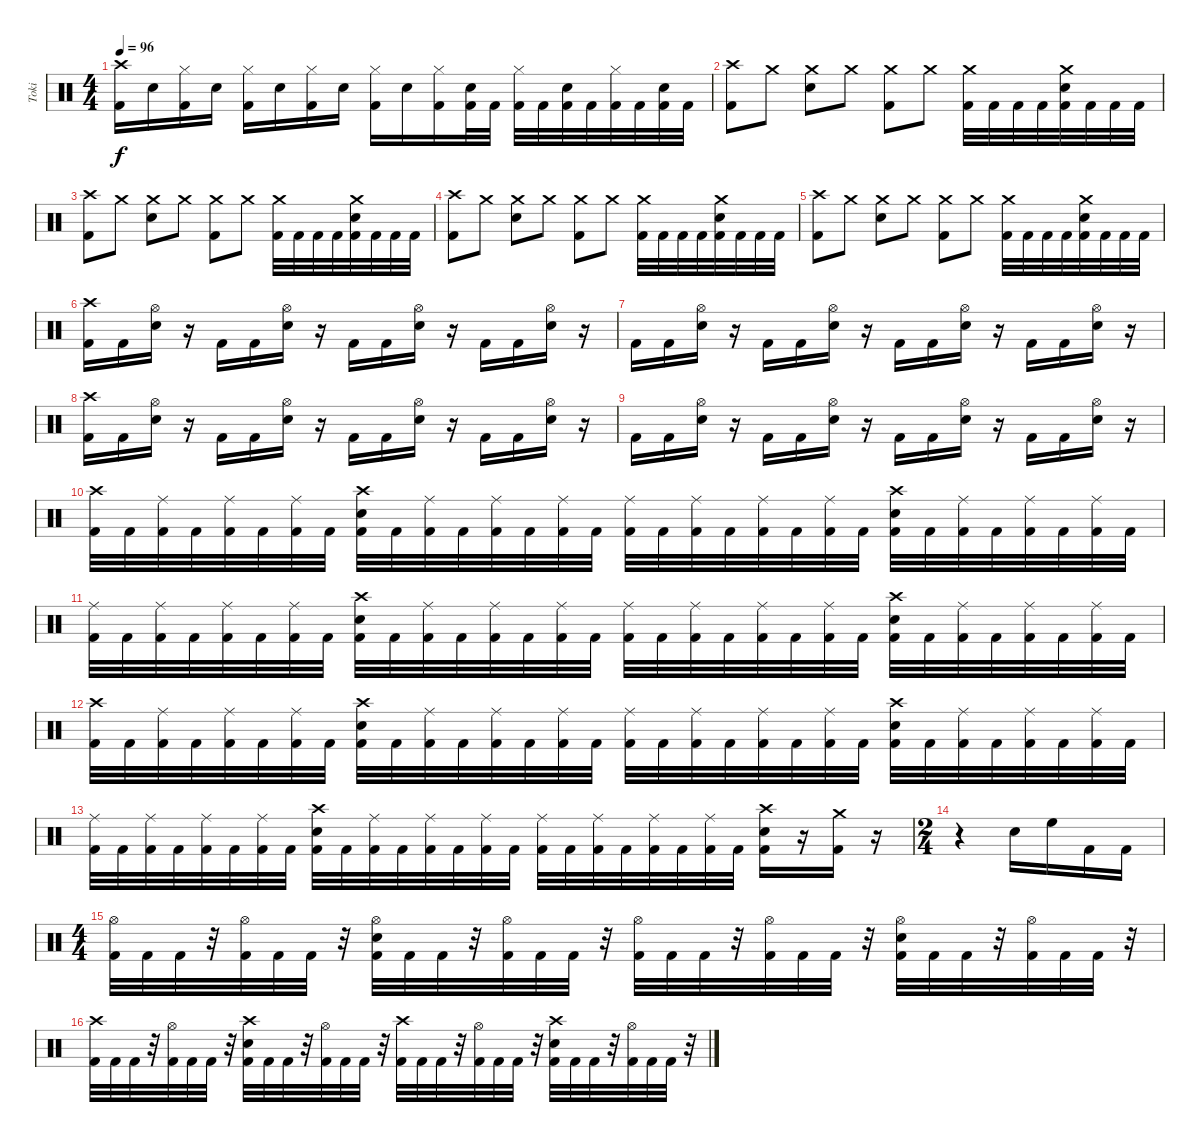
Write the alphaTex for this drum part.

\track ("Toki" "Toki") {instrument percussion}
\staff {score}
\articulation defaults
\ts (4 4)
\tempo 96
\clef neutral
\ks c
("Crash high (hit)" "Kick (hit) 2").16{dy f} "Electric Snare (hit)".16 ("Hi-Hat (closed)" "Kick (hit) 2").16 "Electric Snare (hit)".16 ("Hi-Hat (closed)" "Kick (hit) 2").16 "Electric Snare (hit)".16 ("Hi-Hat (closed)" "Kick (hit) 2").16 "Electric Snare (hit)".16 ("Hi-Hat (closed)" "Kick (hit) 2").16 "Electric Snare (hit)".16 ("Hi-Hat (closed)" "Kick (hit) 2").16 ("Electric Snare (hit)" "Kick (hit) 2").32 "Kick (hit) 2".32 ("Hi-Hat (closed)" "Kick (hit) 2").32 "Kick (hit) 2".32 ("Electric Snare (hit)" "Kick (hit) 2").32 "Kick (hit) 2".32 ("Hi-Hat (closed)" "Kick (hit) 2").32 "Kick (hit) 2".32 ("Electric Snare (hit)" "Kick (hit) 2").32 "Kick (hit) 2".32 |
\section ("" "")
("Crash high (hit)" "Kick (hit) 2").8 "Crash medium (hit)".8 ("Crash medium (hit)" "Electric Snare (hit)").8 "Crash medium (hit)".8 ("Crash medium (hit)" "Kick (hit) 2").8 "Crash medium (hit)".8 ("Crash medium (hit)" "Kick (hit) 2").32 "Kick (hit) 2".32 "Kick (hit) 2".32 "Kick (hit) 2".32 ("Crash medium (hit)" "Electric Snare (hit)" "Kick (hit) 2").32 "Kick (hit) 2".32 "Kick (hit) 2".32 "Kick (hit) 2".32 |
("Crash high (hit)" "Kick (hit) 2").8 "Crash medium (hit)".8 ("Crash medium (hit)" "Electric Snare (hit)").8 "Crash medium (hit)".8 ("Crash medium (hit)" "Kick (hit) 2").8 "Crash medium (hit)".8 ("Crash medium (hit)" "Kick (hit) 2").32 "Kick (hit) 2".32 "Kick (hit) 2".32 "Kick (hit) 2".32 ("Crash medium (hit)" "Electric Snare (hit)" "Kick (hit) 2").32 "Kick (hit) 2".32 "Kick (hit) 2".32 "Kick (hit) 2".32 |
("Crash high (hit)" "Kick (hit) 2").8 "Crash medium (hit)".8 ("Crash medium (hit)" "Electric Snare (hit)").8 "Crash medium (hit)".8 ("Crash medium (hit)" "Kick (hit) 2").8 "Crash medium (hit)".8 ("Crash medium (hit)" "Kick (hit) 2").32 "Kick (hit) 2".32 "Kick (hit) 2".32 "Kick (hit) 2".32 ("Crash medium (hit)" "Electric Snare (hit)" "Kick (hit) 2").32 "Kick (hit) 2".32 "Kick (hit) 2".32 "Kick (hit) 2".32 |
("Crash high (hit)" "Kick (hit) 2").8 "Crash medium (hit)".8 ("Crash medium (hit)" "Electric Snare (hit)").8 "Crash medium (hit)".8 ("Crash medium (hit)" "Kick (hit) 2").8 "Crash medium (hit)".8 ("Crash medium (hit)" "Kick (hit) 2").32 "Kick (hit) 2".32 "Kick (hit) 2".32 "Kick (hit) 2".32 ("Crash medium (hit)" "Electric Snare (hit)" "Kick (hit) 2").32 "Kick (hit) 2".32 "Kick (hit) 2".32 "Kick (hit) 2".32 |
\section ("" "")
("Crash high (hit)" "Kick (hit) 2").16 "Kick (hit) 2".16 ("Hi-Hat (open)" "Electric Snare (hit)").16 r.16 "Kick (hit) 2".16 "Kick (hit) 2".16 ("Hi-Hat (open)" "Electric Snare (hit)").16 r.16 "Kick (hit) 2".16 "Kick (hit) 2".16 ("Hi-Hat (open)" "Electric Snare (hit)").16 r.16 "Kick (hit) 2".16 "Kick (hit) 2".16 ("Hi-Hat (open)" "Electric Snare (hit)").16 r.16 |
"Kick (hit) 2".16 "Kick (hit) 2".16 ("Hi-Hat (open)" "Electric Snare (hit)").16 r.16 "Kick (hit) 2".16 "Kick (hit) 2".16 ("Hi-Hat (open)" "Electric Snare (hit)").16 r.16 "Kick (hit) 2".16 "Kick (hit) 2".16 ("Hi-Hat (open)" "Electric Snare (hit)").16 r.16 "Kick (hit) 2".16 "Kick (hit) 2".16 ("Hi-Hat (open)" "Electric Snare (hit)").16 r.16 |
("Crash high (hit)" "Kick (hit) 2").16 "Kick (hit) 2".16 ("Hi-Hat (open)" "Electric Snare (hit)").16 r.16 "Kick (hit) 2".16 "Kick (hit) 2".16 ("Hi-Hat (open)" "Electric Snare (hit)").16 r.16 "Kick (hit) 2".16 "Kick (hit) 2".16 ("Hi-Hat (open)" "Electric Snare (hit)").16 r.16 "Kick (hit) 2".16 "Kick (hit) 2".16 ("Hi-Hat (open)" "Electric Snare (hit)").16 r.16 |
"Kick (hit) 2".16 "Kick (hit) 2".16 ("Hi-Hat (open)" "Electric Snare (hit)").16 r.16 "Kick (hit) 2".16 "Kick (hit) 2".16 ("Hi-Hat (open)" "Electric Snare (hit)").16 r.16 "Kick (hit) 2".16 "Kick (hit) 2".16 ("Hi-Hat (open)" "Electric Snare (hit)").16 r.16 "Kick (hit) 2".16 "Kick (hit) 2".16 ("Hi-Hat (open)" "Electric Snare (hit)").16 r.16 |
("Crash high (hit)" "Kick (hit) 2").32 "Kick (hit) 2".32 ("Ride (middle)" "Kick (hit) 2").32 "Kick (hit) 2".32 ("Ride (middle)" "Kick (hit) 2").32 "Kick (hit) 2".32 ("Ride (middle)" "Kick (hit) 2").32 "Kick (hit) 2".32 ("Crash high (hit)" "Electric Snare (hit)" "Kick (hit) 2").32 "Kick (hit) 2".32 ("Ride (middle)" "Kick (hit) 2").32 "Kick (hit) 2".32 ("Ride (middle)" "Kick (hit) 2").32 "Kick (hit) 2".32 ("Ride (middle)" "Kick (hit) 2").32 "Kick (hit) 2".32 ("Ride (middle)" "Kick (hit) 2").32 "Kick (hit) 2".32 ("Ride (middle)" "Kick (hit) 2").32 "Kick (hit) 2".32 ("Ride (middle)" "Kick (hit) 2").32 "Kick (hit) 2".32 ("Ride (middle)" "Kick (hit) 2").32 "Kick (hit) 2".32 ("Crash high (hit)" "Electric Snare (hit)" "Kick (hit) 2").32 "Kick (hit) 2".32 ("Ride (middle)" "Kick (hit) 2").32 "Kick (hit) 2".32 ("Ride (middle)" "Kick (hit) 2").32 "Kick (hit) 2".32 ("Ride (middle)" "Kick (hit) 2").32 "Kick (hit) 2".32 |
("Ride (middle)" "Kick (hit) 2").32 "Kick (hit) 2".32 ("Ride (middle)" "Kick (hit) 2").32 "Kick (hit) 2".32 ("Ride (middle)" "Kick (hit) 2").32 "Kick (hit) 2".32 ("Ride (middle)" "Kick (hit) 2").32 "Kick (hit) 2".32 ("Crash high (hit)" "Electric Snare (hit)" "Kick (hit) 2").32 "Kick (hit) 2".32 ("Ride (middle)" "Kick (hit) 2").32 "Kick (hit) 2".32 ("Ride (middle)" "Kick (hit) 2").32 "Kick (hit) 2".32 ("Ride (middle)" "Kick (hit) 2").32 "Kick (hit) 2".32 ("Ride (middle)" "Kick (hit) 2").32 "Kick (hit) 2".32 ("Ride (middle)" "Kick (hit) 2").32 "Kick (hit) 2".32 ("Ride (middle)" "Kick (hit) 2").32 "Kick (hit) 2".32 ("Ride (middle)" "Kick (hit) 2").32 "Kick (hit) 2".32 ("Crash high (hit)" "Electric Snare (hit)" "Kick (hit) 2").32 "Kick (hit) 2".32 ("Ride (middle)" "Kick (hit) 2").32 "Kick (hit) 2".32 ("Ride (middle)" "Kick (hit) 2").32 "Kick (hit) 2".32 ("Ride (middle)" "Kick (hit) 2").32 "Kick (hit) 2".32 |
("Crash high (hit)" "Kick (hit) 2").32 "Kick (hit) 2".32 ("Ride (middle)" "Kick (hit) 2").32 "Kick (hit) 2".32 ("Ride (middle)" "Kick (hit) 2").32 "Kick (hit) 2".32 ("Ride (middle)" "Kick (hit) 2").32 "Kick (hit) 2".32 ("Crash high (hit)" "Electric Snare (hit)" "Kick (hit) 2").32 "Kick (hit) 2".32 ("Ride (middle)" "Kick (hit) 2").32 "Kick (hit) 2".32 ("Ride (middle)" "Kick (hit) 2").32 "Kick (hit) 2".32 ("Ride (middle)" "Kick (hit) 2").32 "Kick (hit) 2".32 ("Ride (middle)" "Kick (hit) 2").32 "Kick (hit) 2".32 ("Ride (middle)" "Kick (hit) 2").32 "Kick (hit) 2".32 ("Ride (middle)" "Kick (hit) 2").32 "Kick (hit) 2".32 ("Ride (middle)" "Kick (hit) 2").32 "Kick (hit) 2".32 ("Crash high (hit)" "Electric Snare (hit)" "Kick (hit) 2").32 "Kick (hit) 2".32 ("Ride (middle)" "Kick (hit) 2").32 "Kick (hit) 2".32 ("Ride (middle)" "Kick (hit) 2").32 "Kick (hit) 2".32 ("Ride (middle)" "Kick (hit) 2").32 "Kick (hit) 2".32 |
("Ride (middle)" "Kick (hit) 2").32 "Kick (hit) 2".32 ("Ride (middle)" "Kick (hit) 2").32 "Kick (hit) 2".32 ("Ride (middle)" "Kick (hit) 2").32 "Kick (hit) 2".32 ("Ride (middle)" "Kick (hit) 2").32 "Kick (hit) 2".32 ("Crash high (hit)" "Electric Snare (hit)" "Kick (hit) 2").32 "Kick (hit) 2".32 ("Ride (middle)" "Kick (hit) 2").32 "Kick (hit) 2".32 ("Ride (middle)" "Kick (hit) 2").32 "Kick (hit) 2".32 ("Ride (middle)" "Kick (hit) 2").32 "Kick (hit) 2".32 ("Ride (middle)" "Kick (hit) 2").32 "Kick (hit) 2".32 ("Ride (middle)" "Kick (hit) 2").32 "Kick (hit) 2".32 ("Ride (middle)" "Kick (hit) 2").32 "Kick (hit) 2".32 ("Ride (middle)" "Kick (hit) 2").32 "Kick (hit) 2".32 ("Crash high (hit)" "Electric Snare (hit)" "Kick (hit) 2").16 r.16 ("Crash medium (hit)" "Kick (hit) 2").16 r.16 |
\ts (2 4)
r.4 "Electric Snare (hit)".16 "High Floor Tom (hit)".16 "Kick (hit) 2".16 "Kick (hit) 2".16 |
\ts (4 4)
\section ("" "")
("Hi-Hat (open)" "Kick (hit) 2").32 "Kick (hit) 2".32 "Kick (hit) 2".32 r.32 ("Hi-Hat (open)" "Kick (hit) 2").32 "Kick (hit) 2".32 "Kick (hit) 2".32 r.32 ("Hi-Hat (open)" "Electric Snare (hit)" "Kick (hit) 2").32 "Kick (hit) 2".32 "Kick (hit) 2".32 r.32 ("Hi-Hat (open)" "Kick (hit) 2").32 "Kick (hit) 2".32 "Kick (hit) 2".32 r.32 ("Hi-Hat (open)" "Kick (hit) 2").32 "Kick (hit) 2".32 "Kick (hit) 2".32 r.32 ("Hi-Hat (open)" "Kick (hit) 2").32 "Kick (hit) 2".32 "Kick (hit) 2".32 r.32 ("Hi-Hat (open)" "Electric Snare (hit)" "Kick (hit) 2").32 "Kick (hit) 2".32 "Kick (hit) 2".32 r.32 ("Hi-Hat (open)" "Kick (hit) 2").32 "Kick (hit) 2".32 "Kick (hit) 2".32 r.32 |
("Crash high (hit)" "Kick (hit) 2").32 "Kick (hit) 2".32 "Kick (hit) 2".32 r.32 ("Hi-Hat (open)" "Kick (hit) 2").32 "Kick (hit) 2".32 "Kick (hit) 2".32 r.32 ("Crash high (hit)" "Electric Snare (hit)" "Kick (hit) 2").32 "Kick (hit) 2".32 "Kick (hit) 2".32 r.32 ("Hi-Hat (open)" "Kick (hit) 2").32 "Kick (hit) 2".32 "Kick (hit) 2".32 r.32 ("Crash high (hit)" "Kick (hit) 2").32 "Kick (hit) 2".32 "Kick (hit) 2".32 r.32 ("Hi-Hat (open)" "Kick (hit) 2").32 "Kick (hit) 2".32 "Kick (hit) 2".32 r.32 ("Crash high (hit)" "Electric Snare (hit)" "Kick (hit) 2").32 "Kick (hit) 2".32 "Kick (hit) 2".32 r.32 ("Hi-Hat (open)" "Kick (hit) 2").32 "Kick (hit) 2".32 "Kick (hit) 2".32 r.32
